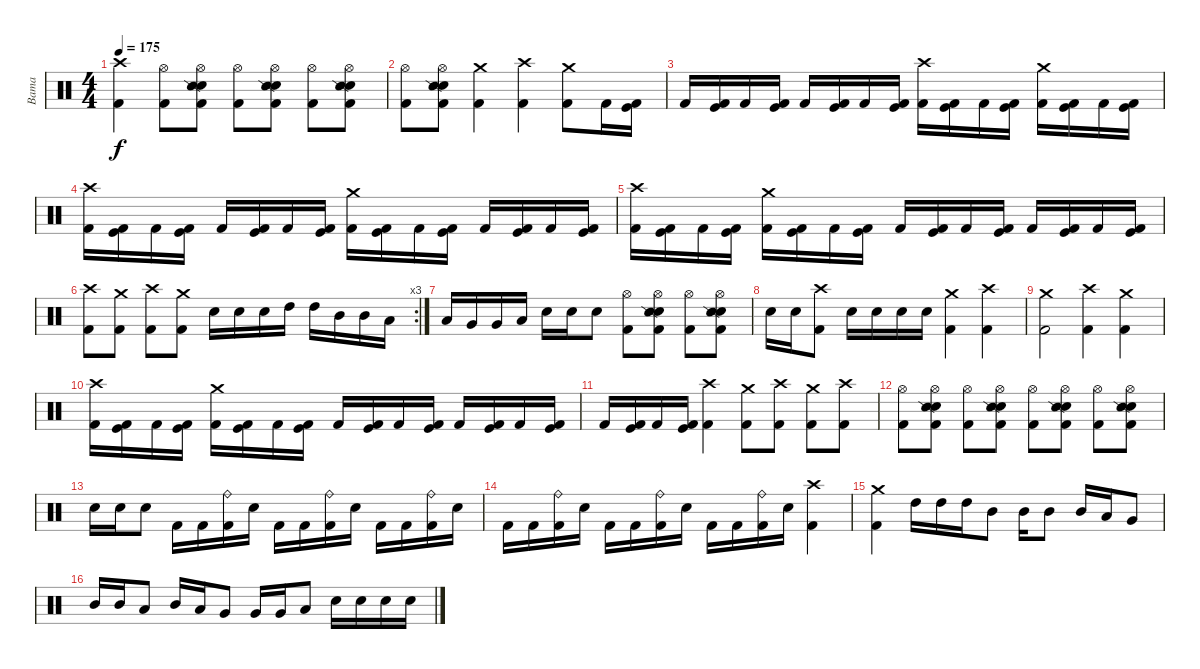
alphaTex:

\track ("Bama" "Bama") {instrument percussion}
\staff {score}
\articulation defaults
\ts (4 4)
\tempo 175
\clef neutral
\ks c
("Crash high (hit)" "Kick (hit) 2").4{dy f} ("Hi-Hat (open)" "Kick (hit) 2").8 ("Hi-Hat (open)" "Electric Snare (hit)" "Snare (side stick) 2" "Kick (hit) 2").8 ("Hi-Hat (open)" "Kick (hit) 2").8 ("Hi-Hat (open)" "Electric Snare (hit)" "Snare (side stick) 2" "Kick (hit) 2").8 ("Hi-Hat (open)" "Kick (hit) 2").8 ("Hi-Hat (open)" "Electric Snare (hit)" "Snare (side stick) 2" "Kick (hit) 2").8 |
("Hi-Hat (open)" "Kick (hit) 2").8 ("Hi-Hat (open)" "Electric Snare (hit)" "Snare (side stick) 2" "Kick (hit) 2").8 ("Crash medium (hit)" "Kick (hit) 2").4 ("Crash high (hit)" "Kick (hit) 2").4 ("Crash medium (hit)" "Kick (hit) 2").8 "Kick (hit) 2".16 ("Kick (hit)" "Kick (hit) 2").16 |
"Kick (hit) 2".16 ("Kick (hit)" "Kick (hit) 2").16 "Kick (hit) 2".16 ("Kick (hit)" "Kick (hit) 2").16 "Kick (hit) 2".16 ("Kick (hit)" "Kick (hit) 2").16 "Kick (hit) 2".16 ("Kick (hit)" "Kick (hit) 2").16 ("Crash high (hit)" "Kick (hit) 2").16 ("Kick (hit)" "Kick (hit) 2").16 "Kick (hit) 2".16 ("Kick (hit)" "Kick (hit) 2").16 ("Crash medium (hit)" "Kick (hit) 2").16 ("Kick (hit)" "Kick (hit) 2").16 "Kick (hit) 2".16 ("Kick (hit)" "Kick (hit) 2").16 |
("Crash high (hit)" "Kick (hit) 2").16 ("Kick (hit)" "Kick (hit) 2").16 "Kick (hit) 2".16 ("Kick (hit)" "Kick (hit) 2").16 "Kick (hit) 2".16 ("Kick (hit)" "Kick (hit) 2").16 "Kick (hit) 2".16 ("Kick (hit)" "Kick (hit) 2").16 ("Crash medium (hit)" "Kick (hit) 2").16 ("Kick (hit)" "Kick (hit) 2").16 "Kick (hit) 2".16 ("Kick (hit)" "Kick (hit) 2").16 "Kick (hit) 2".16 ("Kick (hit)" "Kick (hit) 2").16 "Kick (hit) 2".16 ("Kick (hit)" "Kick (hit) 2").16 |
("Crash high (hit)" "Kick (hit) 2").16 ("Kick (hit)" "Kick (hit) 2").16 "Kick (hit) 2".16 ("Kick (hit)" "Kick (hit) 2").16 ("Crash medium (hit)" "Kick (hit) 2").16 ("Kick (hit)" "Kick (hit) 2").16 "Kick (hit) 2".16 ("Kick (hit)" "Kick (hit) 2").16 "Kick (hit) 2".16 ("Kick (hit)" "Kick (hit) 2").16 "Kick (hit) 2".16 ("Kick (hit)" "Kick (hit) 2").16 "Kick (hit) 2".16 ("Kick (hit)" "Kick (hit) 2").16 "Kick (hit) 2".16 ("Kick (hit)" "Kick (hit) 2").16 |
\rc 3
("Crash high (hit)" "Kick (hit) 2").8 ("Crash medium (hit)" "Kick (hit) 2").8 ("Crash high (hit)" "Kick (hit) 2").8 ("Crash medium (hit)" "Kick (hit) 2").8 "Electric Snare (hit)".16 "Electric Snare (hit)".16 "Electric Snare (hit)".16 "High Tom (hit)".16 "High Tom (hit)".16 "Mid Tom (hit)".16 "Mid Tom (hit)".16 "Low Tom (hit)".16 |
"Low Tom (hit)".16 "Very Low Tom (hit)".16 "Very Low Tom (hit)".16 "Low Floor Tom (hit)".16 "Electric Snare (hit)".16 "Electric Snare (hit)".16 "Electric Snare (hit)".8 ("Hi-Hat (open)" "Kick (hit) 2").8 ("Hi-Hat (open)" "Electric Snare (hit)" "Snare (side stick) 2" "Kick (hit) 2").8 ("Hi-Hat (open)" "Kick (hit) 2").8 ("Hi-Hat (open)" "Electric Snare (hit)" "Snare (side stick) 2" "Kick (hit) 2").8 |
"Electric Snare (hit)".16 "Electric Snare (hit)".16 ("Crash high (hit)" "Kick (hit) 2").8 "Electric Snare (hit)".16 "Electric Snare (hit)".16 "Electric Snare (hit)".16 "Electric Snare (hit)".16 ("Crash medium (hit)" "Kick (hit) 2").4 ("Crash high (hit)" "Kick (hit) 2").4 |
("Crash medium (hit)" "Kick (hit) 2").2 ("Crash high (hit)" "Kick (hit) 2").4 ("Crash medium (hit)" "Kick (hit) 2").4 |
("Crash high (hit)" "Kick (hit) 2").16 ("Kick (hit)" "Kick (hit) 2").16 "Kick (hit) 2".16 ("Kick (hit)" "Kick (hit) 2").16 ("Crash medium (hit)" "Kick (hit) 2").16 ("Kick (hit)" "Kick (hit) 2").16 "Kick (hit) 2".16 ("Kick (hit)" "Kick (hit) 2").16 "Kick (hit) 2".16 ("Kick (hit)" "Kick (hit) 2").16 "Kick (hit) 2".16 ("Kick (hit)" "Kick (hit) 2").16 "Kick (hit) 2".16 ("Kick (hit)" "Kick (hit) 2").16 "Kick (hit) 2".16 ("Kick (hit)" "Kick (hit) 2").16 |
"Kick (hit) 2".16 ("Kick (hit)" "Kick (hit) 2").16 "Kick (hit) 2".16 ("Kick (hit)" "Kick (hit) 2").16 ("Crash high (hit)" "Kick (hit) 2").4 ("Crash medium (hit)" "Kick (hit) 2").8 ("Crash high (hit)" "Kick (hit) 2").8 ("Crash medium (hit)" "Kick (hit) 2").8 ("Crash high (hit)" "Kick (hit) 2").8 |
("Hi-Hat (open)" "Kick (hit) 2").8 ("Hi-Hat (open)" "Electric Snare (hit)" "Snare (side stick) 2" "Kick (hit) 2").8 ("Hi-Hat (open)" "Kick (hit) 2").8 ("Hi-Hat (open)" "Electric Snare (hit)" "Snare (side stick) 2" "Kick (hit) 2").8 ("Hi-Hat (open)" "Kick (hit) 2").8 ("Hi-Hat (open)" "Electric Snare (hit)" "Snare (side stick) 2" "Kick (hit) 2").8 ("Hi-Hat (open)" "Kick (hit) 2").8 ("Hi-Hat (open)" "Electric Snare (hit)" "Snare (side stick) 2" "Kick (hit) 2").8 |
"Electric Snare (hit)".16 "Electric Snare (hit)".16 "Electric Snare (hit)".8 "Kick (hit) 2".16 "Kick (hit) 2".16 ("Ride (bell)" "Kick (hit) 2").16 "Electric Snare (hit)".16 "Kick (hit) 2".16 "Kick (hit) 2".16 ("Ride (bell)" "Kick (hit) 2").16 "Electric Snare (hit)".16 "Kick (hit) 2".16 "Kick (hit) 2".16 ("Ride (bell)" "Kick (hit) 2").16 "Electric Snare (hit)".16 |
"Kick (hit) 2".16 "Kick (hit) 2".16 ("Ride (bell)" "Kick (hit) 2").16 "Electric Snare (hit)".16 "Kick (hit) 2".16 "Kick (hit) 2".16 ("Ride (bell)" "Kick (hit) 2").16 "Electric Snare (hit)".16 "Kick (hit) 2".16 "Kick (hit) 2".16 ("Ride (bell)" "Kick (hit) 2").16 "Electric Snare (hit)".16 ("Crash high (hit)" "Kick (hit) 2").4 |
("Crash medium (hit)" "Kick (hit) 2").4 "High Tom (hit)".16 "High Tom (hit)".16 "High Tom (hit)".16 "Mid Tom (hit)".8 "Mid Tom (hit)".16 "Mid Tom (hit)".8 "Mid Tom (hit)".16 "Low Tom (hit)".16 "Very Low Tom (hit)".8 |
"Mid Tom (hit)".16 "Mid Tom (hit)".16 "Low Tom (hit)".8 "Mid Tom (hit)".16 "Low Tom (hit)".16 "Very Low Tom (hit)".8 "Very Low Tom (hit)".16 "Very Low Tom (hit)".16 "Low Floor Tom (hit)".8 "Electric Snare (hit)".16 "Electric Snare (hit)".16 "Electric Snare (hit)".16 "Electric Snare (hit)".16
